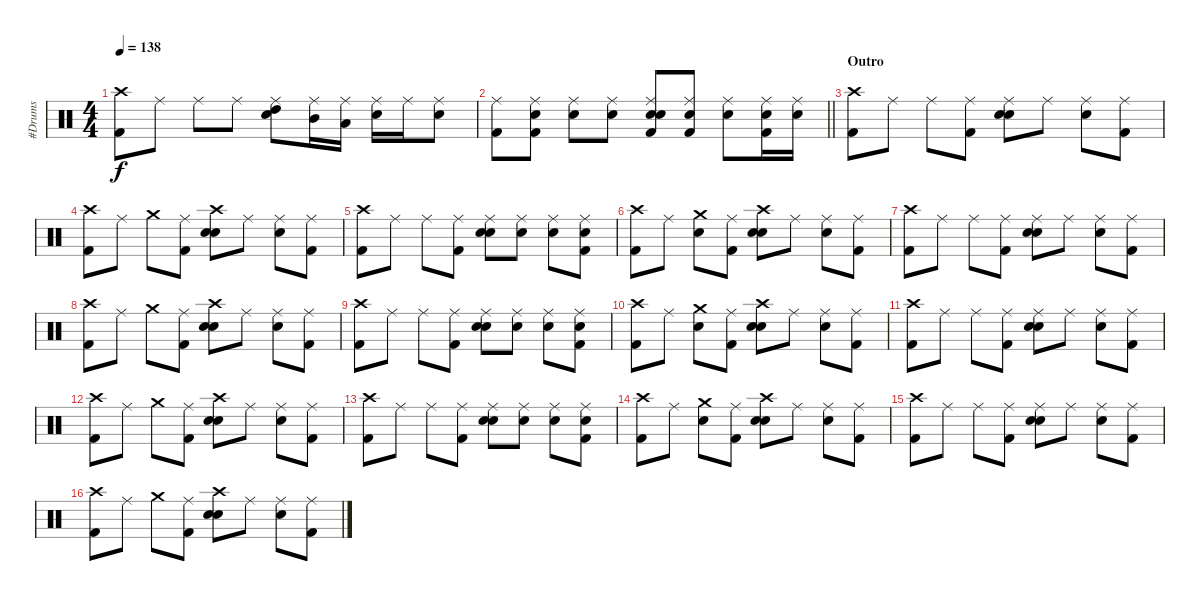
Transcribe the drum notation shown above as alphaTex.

\track ("#Drums" "#Drums") {instrument percussion}
\staff {score}
\articulation defaults
\ts (4 4)
\tempo 138
\clef neutral
\ks c
("Crash high (hit)" "Kick (hit) 2").8{dy f} "Ride (middle)".8 "Ride (middle)".8 "Ride (middle)".8 ("Ride (middle)" "Hand Clap (hit)" "High Tom (hit)").8 ("Ride (middle)" "Mid Tom (hit)").16 ("Ride (middle)" "Low Tom (hit)").16 ("Ride (middle)" "Snare (hit) 2").16 "Ride (middle)".16 ("Ride (middle)" "Snare (hit) 2").8 |
\barLineRight lightlight
("Ride (middle)" "Kick (hit) 2").8 ("Ride (middle)" "Snare (hit) 2" "Kick (hit) 2").8 ("Ride (middle)" "Snare (hit) 2").8 ("Ride (middle)" "Electric Snare (hit)").8 ("Ride (middle)" "Hand Clap (hit)" "Electric Snare (hit)" "Kick (hit) 2").8 ("Ride (middle)" "Snare (hit) 2" "Kick (hit) 2").8 ("Ride (middle)" "Snare (hit) 2").8 ("Ride (middle)" "Kick (hit) 2" "Snare (hit) 2").16 ("Ride (middle)" "Snare (hit) 2").16 |
\section ("" "Outro")
("Crash high (hit)" "Kick (hit) 2").8 "Ride (middle)".8 "Ride (middle)".8 ("Ride (middle)" "Kick (hit) 2").8 ("Ride (middle)" "Snare (hit) 2" "Electric Snare (hit)").8 "Ride (middle)".8 ("Ride (middle)" "Electric Snare (hit)").8 ("Ride (middle)" "Kick (hit) 2").8 |
("Crash high (hit)" "Kick (hit) 2").8 "Ride (middle)".8 "Crash medium (hit)".8 ("Ride (middle)" "Kick (hit) 2").8 ("Crash high (hit)" "Snare (hit) 2" "Electric Snare (hit)").8 "Ride (middle)".8 ("Ride (middle)" "Electric Snare (hit)").8 ("Ride (middle)" "Kick (hit) 2").8 |
("Crash high (hit)" "Kick (hit) 2").8 "Ride (middle)".8 "Ride (middle)".8 ("Ride (middle)" "Kick (hit) 2").8 ("Ride (middle)" "Snare (hit) 2" "Electric Snare (hit)").8 ("Ride (middle)" "Electric Snare (hit)").8 ("Ride (middle)" "Electric Snare (hit)").8 ("Ride (middle)" "Snare (hit) 2" "Kick (hit) 2").8 |
("Crash high (hit)" "Kick (hit) 2").8 "Ride (middle)".8 ("Crash medium (hit)" "Snare (hit) 2").8 ("Ride (middle)" "Kick (hit) 2").8 ("Crash high (hit)" "Snare (hit) 2" "Electric Snare (hit)").8 "Ride (middle)".8 ("Ride (middle)" "Electric Snare (hit)").8 ("Ride (middle)" "Kick (hit) 2").8 |
("Crash high (hit)" "Kick (hit) 2").8 "Ride (middle)".8 "Ride (middle)".8 ("Ride (middle)" "Kick (hit) 2").8 ("Ride (middle)" "Snare (hit) 2" "Electric Snare (hit)").8 "Ride (middle)".8 ("Ride (middle)" "Electric Snare (hit)").8 ("Ride (middle)" "Kick (hit) 2").8 |
("Crash high (hit)" "Kick (hit) 2").8 "Ride (middle)".8 "Crash medium (hit)".8 ("Ride (middle)" "Kick (hit) 2").8 ("Crash high (hit)" "Snare (hit) 2" "Electric Snare (hit)").8 "Ride (middle)".8 ("Ride (middle)" "Electric Snare (hit)").8 ("Ride (middle)" "Kick (hit) 2").8 |
("Crash high (hit)" "Kick (hit) 2").8 "Ride (middle)".8 "Ride (middle)".8 ("Ride (middle)" "Kick (hit) 2").8 ("Ride (middle)" "Snare (hit) 2" "Electric Snare (hit)").8 ("Ride (middle)" "Electric Snare (hit)").8 ("Ride (middle)" "Electric Snare (hit)").8 ("Ride (middle)" "Snare (hit) 2" "Kick (hit) 2").8 |
("Crash high (hit)" "Kick (hit) 2").8 "Ride (middle)".8 ("Crash medium (hit)" "Snare (hit) 2").8 ("Ride (middle)" "Kick (hit) 2").8 ("Crash high (hit)" "Snare (hit) 2" "Electric Snare (hit)").8 "Ride (middle)".8 ("Ride (middle)" "Electric Snare (hit)").8 ("Ride (middle)" "Kick (hit) 2").8 |
("Crash high (hit)" "Kick (hit) 2").8 "Ride (middle)".8 "Ride (middle)".8 ("Ride (middle)" "Kick (hit) 2").8 ("Ride (middle)" "Snare (hit) 2" "Electric Snare (hit)").8 "Ride (middle)".8 ("Ride (middle)" "Electric Snare (hit)").8 ("Ride (middle)" "Kick (hit) 2").8 |
("Crash high (hit)" "Kick (hit) 2").8 "Ride (middle)".8 "Crash medium (hit)".8 ("Ride (middle)" "Kick (hit) 2").8 ("Crash high (hit)" "Snare (hit) 2" "Electric Snare (hit)").8 "Ride (middle)".8 ("Ride (middle)" "Electric Snare (hit)").8 ("Ride (middle)" "Kick (hit) 2").8 |
("Crash high (hit)" "Kick (hit) 2").8 "Ride (middle)".8 "Ride (middle)".8 ("Ride (middle)" "Kick (hit) 2").8 ("Ride (middle)" "Snare (hit) 2" "Electric Snare (hit)").8 ("Ride (middle)" "Electric Snare (hit)").8 ("Ride (middle)" "Electric Snare (hit)").8 ("Ride (middle)" "Snare (hit) 2" "Kick (hit) 2").8 |
("Crash high (hit)" "Kick (hit) 2").8 "Ride (middle)".8 ("Crash medium (hit)" "Snare (hit) 2").8 ("Ride (middle)" "Kick (hit) 2").8 ("Crash high (hit)" "Snare (hit) 2" "Electric Snare (hit)").8 "Ride (middle)".8 ("Ride (middle)" "Electric Snare (hit)").8 ("Ride (middle)" "Kick (hit) 2").8 |
("Crash high (hit)" "Kick (hit) 2").8 "Ride (middle)".8 "Ride (middle)".8 ("Ride (middle)" "Kick (hit) 2").8 ("Ride (middle)" "Snare (hit) 2" "Electric Snare (hit)").8 "Ride (middle)".8 ("Ride (middle)" "Electric Snare (hit)").8 ("Ride (middle)" "Kick (hit) 2").8 |
("Crash high (hit)" "Kick (hit) 2").8 "Ride (middle)".8 "Crash medium (hit)".8 ("Ride (middle)" "Kick (hit) 2").8 ("Crash high (hit)" "Snare (hit) 2" "Electric Snare (hit)").8 "Ride (middle)".8 ("Ride (middle)" "Electric Snare (hit)").8 ("Ride (middle)" "Kick (hit) 2").8
